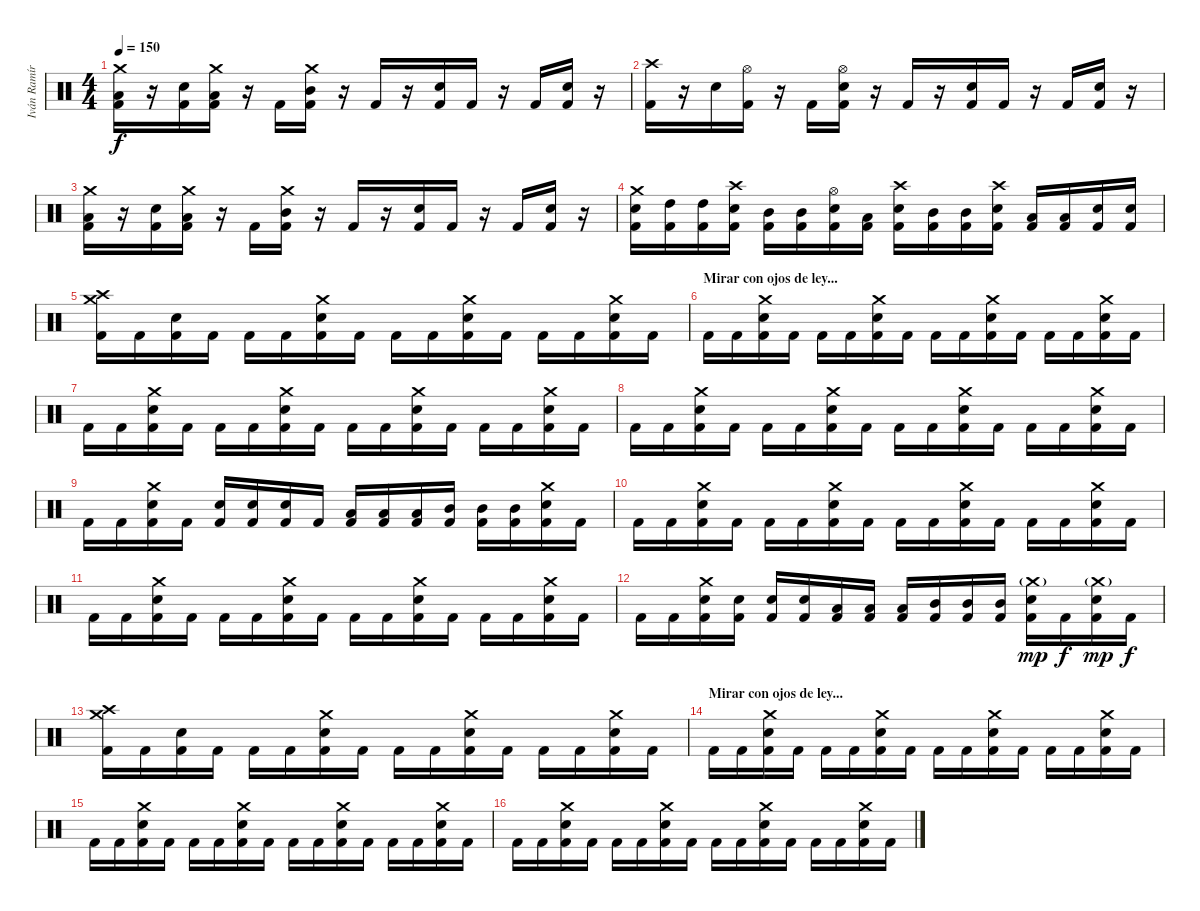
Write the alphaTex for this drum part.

\track ("Iván Ramírez" "Iván Ramír") {instrument percussion}
\staff {score}
\articulation defaults
\ts (4 4)
\tempo 150
\clef neutral
\ks c
("Crash medium (hit)" "Low Tom (hit)" "Kick (hit) 2").16{dy f} r.16 ("Electric Snare (hit)" "Kick (hit) 2").16 ("Crash medium (hit)" "Low Tom (hit)" "Kick (hit) 2").16 r.16 "Kick (hit) 2".16 ("Crash medium (hit)" "Mid Tom (hit)" "Kick (hit) 2").16 r.16 "Kick (hit) 2".16 r.16 ("Electric Snare (hit)" "Kick (hit) 2").16 "Kick (hit) 2".16 r.16 "Kick (hit) 2".16 ("Electric Snare (hit)" "Kick (hit) 2").16 r.16 |
("Crash high (hit)" "Kick (hit) 2").16 r.16 "Electric Snare (hit)".16 ("Hi-Hat (open)" "Kick (hit) 2").16 r.16 "Kick (hit) 2".16 ("Hi-Hat (open)" "Electric Snare (hit)" "Kick (hit) 2").16 r.16 "Kick (hit) 2".16 r.16 ("Electric Snare (hit)" "Kick (hit) 2").16 "Kick (hit) 2".16 r.16 "Kick (hit) 2".16 ("Electric Snare (hit)" "Kick (hit) 2").16 r.16 |
("Crash medium (hit)" "Low Tom (hit)" "Kick (hit) 2").16 r.16 ("Electric Snare (hit)" "Kick (hit) 2").16 ("Crash medium (hit)" "Low Tom (hit)" "Kick (hit) 2").16 r.16 "Kick (hit) 2".16 ("Crash medium (hit)" "Mid Tom (hit)" "Kick (hit) 2").16 r.16 "Kick (hit) 2".16 r.16 ("Electric Snare (hit)" "Kick (hit) 2").16 "Kick (hit) 2".16 r.16 "Kick (hit) 2".16 ("Electric Snare (hit)" "Kick (hit) 2").16 r.16 |
("Crash medium (hit)" "Electric Snare (hit)" "Kick (hit) 2").16 ("High Tom (hit)" "Kick (hit) 2").16 ("High Tom (hit)" "Kick (hit) 2").16 ("Crash high (hit)" "Electric Snare (hit)" "Kick (hit) 2").16 ("Mid Tom (hit)" "Kick (hit) 2").16 ("Mid Tom (hit)" "Kick (hit) 2").16 ("Hi-Hat (open)" "Electric Snare (hit)" "Kick (hit) 2").16 ("Low Tom (hit)" "Kick (hit) 2").16 ("Crash high (hit)" "Electric Snare (hit)" "Kick (hit) 2").16 ("Mid Tom (hit)" "Kick (hit) 2").16 ("Mid Tom (hit)" "Kick (hit) 2").16 ("Crash high (hit)" "Electric Snare (hit)" "Kick (hit) 2").16 ("Low Tom (hit)" "Kick (hit) 2").16 ("Low Tom (hit)" "Kick (hit) 2").16 ("Electric Snare (hit)" "Kick (hit) 2").16 ("Electric Snare (hit)" "Kick (hit) 2").16 |
("Crash medium (hit)" "Crash high (hit)" "Kick (hit) 2").16 "Kick (hit) 2".16 ("Electric Snare (hit)" "Kick (hit) 2").16 "Kick (hit) 2".16 "Kick (hit) 2".16 "Kick (hit) 2".16 ("Crash medium (hit)" "Electric Snare (hit)" "Kick (hit) 2").16 "Kick (hit) 2".16 "Kick (hit) 2".16 "Kick (hit) 2".16 ("Crash medium (hit)" "Electric Snare (hit)" "Kick (hit) 2").16 "Kick (hit) 2".16 "Kick (hit) 2".16 "Kick (hit) 2".16 ("Crash medium (hit)" "Electric Snare (hit)" "Kick (hit) 2").16 "Kick (hit) 2".16 |
\section ("" "Mirar con ojos de ley...")
"Kick (hit) 2".16 "Kick (hit) 2".16 ("Crash medium (hit)" "Electric Snare (hit)" "Kick (hit) 2").16 "Kick (hit) 2".16 "Kick (hit) 2".16 "Kick (hit) 2".16 ("Crash medium (hit)" "Electric Snare (hit)" "Kick (hit) 2").16 "Kick (hit) 2".16 "Kick (hit) 2".16 "Kick (hit) 2".16 ("Crash medium (hit)" "Electric Snare (hit)" "Kick (hit) 2").16 "Kick (hit) 2".16 "Kick (hit) 2".16 "Kick (hit) 2".16 ("Crash medium (hit)" "Electric Snare (hit)" "Kick (hit) 2").16 "Kick (hit) 2".16 |
"Kick (hit) 2".16 "Kick (hit) 2".16 ("Crash medium (hit)" "Electric Snare (hit)" "Kick (hit) 2").16 "Kick (hit) 2".16 "Kick (hit) 2".16 "Kick (hit) 2".16 ("Crash medium (hit)" "Electric Snare (hit)" "Kick (hit) 2").16 "Kick (hit) 2".16 "Kick (hit) 2".16 "Kick (hit) 2".16 ("Crash medium (hit)" "Electric Snare (hit)" "Kick (hit) 2").16 "Kick (hit) 2".16 "Kick (hit) 2".16 "Kick (hit) 2".16 ("Crash medium (hit)" "Electric Snare (hit)" "Kick (hit) 2").16 "Kick (hit) 2".16 |
"Kick (hit) 2".16 "Kick (hit) 2".16 ("Crash medium (hit)" "Electric Snare (hit)" "Kick (hit) 2").16 "Kick (hit) 2".16 "Kick (hit) 2".16 "Kick (hit) 2".16 ("Crash medium (hit)" "Electric Snare (hit)" "Kick (hit) 2").16 "Kick (hit) 2".16 "Kick (hit) 2".16 "Kick (hit) 2".16 ("Crash medium (hit)" "Electric Snare (hit)" "Kick (hit) 2").16 "Kick (hit) 2".16 "Kick (hit) 2".16 "Kick (hit) 2".16 ("Crash medium (hit)" "Electric Snare (hit)" "Kick (hit) 2").16 "Kick (hit) 2".16 |
"Kick (hit) 2".16 "Kick (hit) 2".16 ("Crash medium (hit)" "Electric Snare (hit)" "Kick (hit) 2").16 "Kick (hit) 2".16 ("Electric Snare (hit)" "Kick (hit) 2").16 ("Electric Snare (hit)" "Kick (hit) 2").16 ("Electric Snare (hit)" "Kick (hit) 2").16 "Kick (hit) 2".16 ("Low Tom (hit)" "Kick (hit) 2").16 ("Low Tom (hit)" "Kick (hit) 2").16 ("Low Tom (hit)" "Kick (hit) 2").16 ("Mid Tom (hit)" "Kick (hit) 2").16 ("Mid Tom (hit)" "Kick (hit) 2").16 ("Mid Tom (hit)" "Kick (hit) 2").16 ("Crash medium (hit)" "Electric Snare (hit)" "Kick (hit) 2").16 "Kick (hit) 2".16 |
"Kick (hit) 2".16 "Kick (hit) 2".16 ("Crash medium (hit)" "Electric Snare (hit)" "Kick (hit) 2").16 "Kick (hit) 2".16 "Kick (hit) 2".16 "Kick (hit) 2".16 ("Crash medium (hit)" "Electric Snare (hit)" "Kick (hit) 2").16 "Kick (hit) 2".16 "Kick (hit) 2".16 "Kick (hit) 2".16 ("Crash medium (hit)" "Electric Snare (hit)" "Kick (hit) 2").16 "Kick (hit) 2".16 "Kick (hit) 2".16 "Kick (hit) 2".16 ("Crash medium (hit)" "Electric Snare (hit)" "Kick (hit) 2").16 "Kick (hit) 2".16 |
"Kick (hit) 2".16 "Kick (hit) 2".16 ("Crash medium (hit)" "Electric Snare (hit)" "Kick (hit) 2").16 "Kick (hit) 2".16 "Kick (hit) 2".16 "Kick (hit) 2".16 ("Crash medium (hit)" "Electric Snare (hit)" "Kick (hit) 2").16 "Kick (hit) 2".16 "Kick (hit) 2".16 "Kick (hit) 2".16 ("Crash medium (hit)" "Electric Snare (hit)" "Kick (hit) 2").16 "Kick (hit) 2".16 "Kick (hit) 2".16 "Kick (hit) 2".16 ("Crash medium (hit)" "Electric Snare (hit)" "Kick (hit) 2").16 "Kick (hit) 2".16 |
"Kick (hit) 2".16 "Kick (hit) 2".16 ("Crash medium (hit)" "Electric Snare (hit)" "Kick (hit) 2").16 ("Electric Snare (hit)" "Kick (hit) 2").16 ("Electric Snare (hit)" "Kick (hit) 2").16 ("Electric Snare (hit)" "Kick (hit) 2").16 ("Low Tom (hit)" "Kick (hit) 2").16 ("Low Tom (hit)" "Kick (hit) 2").16 ("Low Tom (hit)" "Kick (hit) 2").16 ("Mid Tom (hit)" "Kick (hit) 2").16 ("Mid Tom (hit)" "Kick (hit) 2").16 ("Mid Tom (hit)" "Kick (hit) 2").16 ("Crash medium (hit)"{g} "Electric Snare (hit)" "Kick (hit) 2").16{dy mp} "Kick (hit) 2".16{dy f} ("Crash medium (hit)"{g} "Electric Snare (hit)" "Kick (hit) 2").16{dy mp} "Kick (hit) 2".16{dy f} |
("Crash medium (hit)" "Crash high (hit)" "Kick (hit) 2").16 "Kick (hit) 2".16 ("Electric Snare (hit)" "Kick (hit) 2").16 "Kick (hit) 2".16 "Kick (hit) 2".16 "Kick (hit) 2".16 ("Crash medium (hit)" "Electric Snare (hit)" "Kick (hit) 2").16 "Kick (hit) 2".16 "Kick (hit) 2".16 "Kick (hit) 2".16 ("Crash medium (hit)" "Electric Snare (hit)" "Kick (hit) 2").16 "Kick (hit) 2".16 "Kick (hit) 2".16 "Kick (hit) 2".16 ("Crash medium (hit)" "Electric Snare (hit)" "Kick (hit) 2").16 "Kick (hit) 2".16 |
\section ("" "Mirar con ojos de ley...")
"Kick (hit) 2".16 "Kick (hit) 2".16 ("Crash medium (hit)" "Electric Snare (hit)" "Kick (hit) 2").16 "Kick (hit) 2".16 "Kick (hit) 2".16 "Kick (hit) 2".16 ("Crash medium (hit)" "Electric Snare (hit)" "Kick (hit) 2").16 "Kick (hit) 2".16 "Kick (hit) 2".16 "Kick (hit) 2".16 ("Crash medium (hit)" "Electric Snare (hit)" "Kick (hit) 2").16 "Kick (hit) 2".16 "Kick (hit) 2".16 "Kick (hit) 2".16 ("Crash medium (hit)" "Electric Snare (hit)" "Kick (hit) 2").16 "Kick (hit) 2".16 |
"Kick (hit) 2".16 "Kick (hit) 2".16 ("Crash medium (hit)" "Electric Snare (hit)" "Kick (hit) 2").16 "Kick (hit) 2".16 "Kick (hit) 2".16 "Kick (hit) 2".16 ("Crash medium (hit)" "Electric Snare (hit)" "Kick (hit) 2").16 "Kick (hit) 2".16 "Kick (hit) 2".16 "Kick (hit) 2".16 ("Crash medium (hit)" "Electric Snare (hit)" "Kick (hit) 2").16 "Kick (hit) 2".16 "Kick (hit) 2".16 "Kick (hit) 2".16 ("Crash medium (hit)" "Electric Snare (hit)" "Kick (hit) 2").16 "Kick (hit) 2".16 |
"Kick (hit) 2".16 "Kick (hit) 2".16 ("Crash medium (hit)" "Electric Snare (hit)" "Kick (hit) 2").16 "Kick (hit) 2".16 "Kick (hit) 2".16 "Kick (hit) 2".16 ("Crash medium (hit)" "Electric Snare (hit)" "Kick (hit) 2").16 "Kick (hit) 2".16 "Kick (hit) 2".16 "Kick (hit) 2".16 ("Crash medium (hit)" "Electric Snare (hit)" "Kick (hit) 2").16 "Kick (hit) 2".16 "Kick (hit) 2".16 "Kick (hit) 2".16 ("Crash medium (hit)" "Electric Snare (hit)" "Kick (hit) 2").16 "Kick (hit) 2".16
